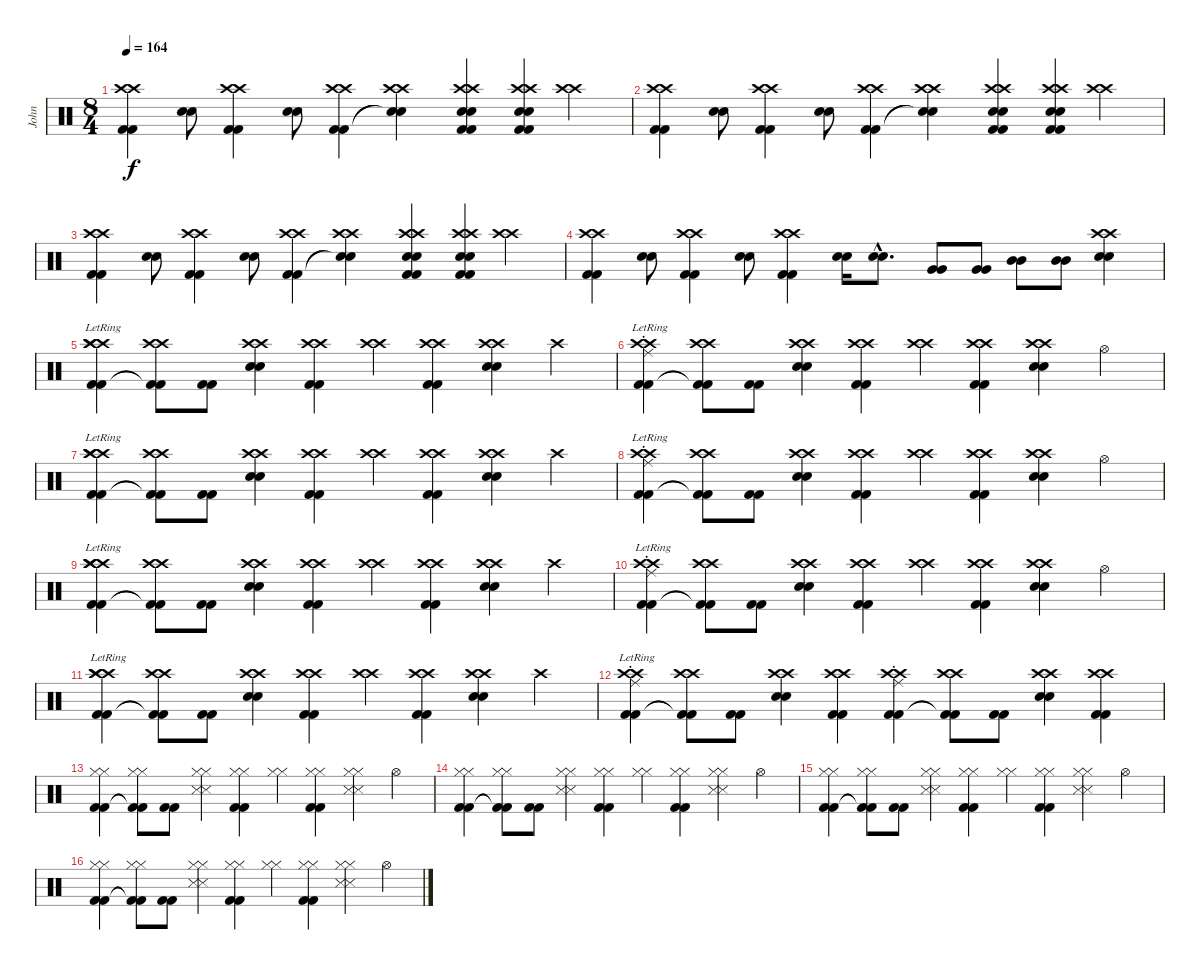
\track ("John" "John") {instrument percussion}
\staff {score}
\articulation defaults
\ts (8 4)
\tempo 164
\clef neutral
\ks c
("Kick (hit) 2" "Kick (hit) 2" "Crash high (hit)" "Crash high (hit)").4{dy f} ("Snare (hit) 2" "Snare (hit) 2").8 ("Kick (hit) 2" "Kick (hit) 2" "Crash high (hit)" "Crash high (hit)").4 ("Snare (hit) 2" "Snare (hit) 2").8 ("Kick (hit) 2" "Kick (hit) 2" "Crash high (hit)" "Crash high (hit)").4 ("Snare (hit)"{t} "Snare (hit)"{t} "Crash high (hit)" "Crash high (hit)").4 ("Kick (hit) 2" "Kick (hit) 2" "Crash high (hit)" "Crash high (hit)" "Snare (hit) 2" "Snare (hit) 2").4 ("Kick (hit) 2" "Kick (hit) 2" "Crash high (hit)" "Crash high (hit)" "Snare (hit) 2" "Snare (hit) 2").4 ("Crash high (hit)" "Crash high (hit)").4 |
("Kick (hit) 2" "Kick (hit) 2" "Crash high (hit)" "Crash high (hit)").4 ("Snare (hit) 2" "Snare (hit) 2").8 ("Kick (hit) 2" "Kick (hit) 2" "Crash high (hit)" "Crash high (hit)").4 ("Snare (hit) 2" "Snare (hit) 2").8 ("Kick (hit) 2" "Kick (hit) 2" "Crash high (hit)" "Crash high (hit)").4 ("Snare (hit)"{t} "Snare (hit)"{t} "Crash high (hit)" "Crash high (hit)").4 ("Kick (hit) 2" "Kick (hit) 2" "Crash high (hit)" "Crash high (hit)" "Snare (hit) 2" "Snare (hit) 2").4 ("Kick (hit) 2" "Kick (hit) 2" "Crash high (hit)" "Crash high (hit)" "Snare (hit) 2" "Snare (hit) 2").4 ("Crash high (hit)" "Crash high (hit)").4 |
("Kick (hit) 2" "Kick (hit) 2" "Crash high (hit)" "Crash high (hit)").4 ("Snare (hit) 2" "Snare (hit) 2").8 ("Kick (hit) 2" "Kick (hit) 2" "Crash high (hit)" "Crash high (hit)").4 ("Snare (hit) 2" "Snare (hit) 2").8 ("Kick (hit) 2" "Kick (hit) 2" "Crash high (hit)" "Crash high (hit)").4 ("Snare (hit)"{t} "Snare (hit)"{t} "Crash high (hit)" "Crash high (hit)").4 ("Kick (hit) 2" "Kick (hit) 2" "Crash high (hit)" "Crash high (hit)" "Snare (hit) 2" "Snare (hit) 2").4 ("Kick (hit) 2" "Kick (hit) 2" "Crash high (hit)" "Crash high (hit)" "Snare (hit) 2" "Snare (hit) 2").4 ("Crash high (hit)" "Crash high (hit)").4 |
("Kick (hit) 2" "Kick (hit) 2" "Crash high (hit)" "Crash high (hit)").4 ("Snare (hit) 2" "Snare (hit) 2").8 ("Kick (hit) 2" "Kick (hit) 2" "Crash high (hit)" "Crash high (hit)").4 ("Snare (hit) 2" "Snare (hit) 2").8 ("Kick (hit) 2" "Kick (hit) 2" "Crash high (hit)" "Crash high (hit)").4 ("Snare (hit) 2" "Snare (hit) 2").16 ("Snare (hit) 2"{hac} "Snare (hit) 2"{hac}).8{d} ("Very Low Tom (hit)" "Very Low Tom (hit)").8 ("Very Low Tom (hit)" "Very Low Tom (hit)").8 ("Mid Tom (hit)" "Mid Tom (hit)").8 ("Mid Tom (hit)" "Mid Tom (hit)").8 ("Snare (hit) 2" "Snare (hit) 2" "Crash high (hit)" "Crash high (hit)").4 |
("Kick (hit) 2" "Kick (hit) 2" "Crash high (hit)" "Crash high (hit)" "Crash high (hit)"{lr}).4 ("Kick (hit) 2"{t} "Kick (hit) 2"{t} "Crash high (hit)" "Crash high (hit)").8 ("Kick (hit) 2" "Kick (hit) 2").8 ("Snare (hit) 2" "Snare (hit) 2" "Crash high (hit)" "Crash high (hit)").4 ("Kick (hit) 2" "Kick (hit) 2" "Crash high (hit)" "Crash high (hit)").4 ("Crash high (hit)" "Crash high (hit)").4 ("Kick (hit) 2" "Kick (hit) 2" "Crash high (hit)" "Crash high (hit)").4 ("Snare (hit) 2" "Snare (hit) 2" "Crash high (hit)" "Crash high (hit)").4 "Crash high (hit)".4 |
("Kick (hit) 2" "Kick (hit) 2" "Crash high (hit)" "Crash high (hit)" "Ride (choke)"{lr}).4 ("Kick (hit) 2"{t} "Kick (hit) 2"{t} "Crash high (hit)" "Crash high (hit)").8 ("Kick (hit) 2" "Kick (hit) 2").8 ("Snare (hit) 2" "Snare (hit) 2" "Crash high (hit)" "Crash high (hit)").4 ("Kick (hit) 2" "Kick (hit) 2" "Crash high (hit)" "Crash high (hit)").4 ("Crash high (hit)" "Crash high (hit)").4 ("Kick (hit) 2" "Kick (hit) 2" "Crash high (hit)" "Crash high (hit)").4 ("Snare (hit) 2" "Snare (hit) 2" "Crash high (hit)" "Crash high (hit)").4 "Hi-Hat (open)".4 |
("Kick (hit) 2" "Kick (hit) 2" "Crash high (hit)" "Crash high (hit)" "Crash high (hit)"{lr}).4 ("Kick (hit) 2"{t} "Kick (hit) 2"{t} "Crash high (hit)" "Crash high (hit)").8 ("Kick (hit) 2" "Kick (hit) 2").8 ("Snare (hit) 2" "Snare (hit) 2" "Crash high (hit)" "Crash high (hit)").4 ("Kick (hit) 2" "Kick (hit) 2" "Crash high (hit)" "Crash high (hit)").4 ("Crash high (hit)" "Crash high (hit)").4 ("Kick (hit) 2" "Kick (hit) 2" "Crash high (hit)" "Crash high (hit)").4 ("Snare (hit) 2" "Snare (hit) 2" "Crash high (hit)" "Crash high (hit)").4 "Crash high (hit)".4 |
("Kick (hit) 2" "Kick (hit) 2" "Crash high (hit)" "Crash high (hit)" "Ride (choke)"{lr}).4 ("Kick (hit) 2"{t} "Kick (hit) 2"{t} "Crash high (hit)" "Crash high (hit)").8 ("Kick (hit) 2" "Kick (hit) 2").8 ("Snare (hit) 2" "Snare (hit) 2" "Crash high (hit)" "Crash high (hit)").4 ("Kick (hit) 2" "Kick (hit) 2" "Crash high (hit)" "Crash high (hit)").4 ("Crash high (hit)" "Crash high (hit)").4 ("Kick (hit) 2" "Kick (hit) 2" "Crash high (hit)" "Crash high (hit)").4 ("Snare (hit) 2" "Snare (hit) 2" "Crash high (hit)" "Crash high (hit)").4 "Hi-Hat (open)".4 |
("Kick (hit) 2" "Kick (hit) 2" "Crash high (hit)" "Crash high (hit)" "Crash high (hit)"{lr}).4 ("Kick (hit) 2"{t} "Kick (hit) 2"{t} "Crash high (hit)" "Crash high (hit)").8 ("Kick (hit) 2" "Kick (hit) 2").8 ("Snare (hit) 2" "Snare (hit) 2" "Crash high (hit)" "Crash high (hit)").4 ("Kick (hit) 2" "Kick (hit) 2" "Crash high (hit)" "Crash high (hit)").4 ("Crash high (hit)" "Crash high (hit)").4 ("Kick (hit) 2" "Kick (hit) 2" "Crash high (hit)" "Crash high (hit)").4 ("Snare (hit) 2" "Snare (hit) 2" "Crash high (hit)" "Crash high (hit)").4 "Crash high (hit)".4 |
("Kick (hit) 2" "Kick (hit) 2" "Crash high (hit)" "Crash high (hit)" "Ride (choke)"{lr}).4 ("Kick (hit) 2"{t} "Kick (hit) 2"{t} "Crash high (hit)" "Crash high (hit)").8 ("Kick (hit) 2" "Kick (hit) 2").8 ("Snare (hit) 2" "Snare (hit) 2" "Crash high (hit)" "Crash high (hit)").4 ("Kick (hit) 2" "Kick (hit) 2" "Crash high (hit)" "Crash high (hit)").4 ("Crash high (hit)" "Crash high (hit)").4 ("Kick (hit) 2" "Kick (hit) 2" "Crash high (hit)" "Crash high (hit)").4 ("Snare (hit) 2" "Snare (hit) 2" "Crash high (hit)" "Crash high (hit)").4 "Hi-Hat (open)".4 |
("Kick (hit) 2" "Kick (hit) 2" "Crash high (hit)" "Crash high (hit)" "Crash high (hit)"{lr}).4 ("Kick (hit) 2"{t} "Kick (hit) 2"{t} "Crash high (hit)" "Crash high (hit)").8 ("Kick (hit) 2" "Kick (hit) 2").8 ("Snare (hit) 2" "Snare (hit) 2" "Crash high (hit)" "Crash high (hit)").4 ("Kick (hit) 2" "Kick (hit) 2" "Crash high (hit)" "Crash high (hit)").4 ("Crash high (hit)" "Crash high (hit)").4 ("Kick (hit) 2" "Kick (hit) 2" "Crash high (hit)" "Crash high (hit)").4 ("Snare (hit) 2" "Snare (hit) 2" "Crash high (hit)" "Crash high (hit)").4 "Crash high (hit)".4 |
("Kick (hit) 2" "Kick (hit) 2" "Crash high (hit)" "Crash high (hit)" "Ride (choke)"{lr}).4 ("Kick (hit) 2"{t} "Kick (hit) 2"{t} "Crash high (hit)" "Crash high (hit)").8 ("Kick (hit) 2" "Kick (hit) 2").8 ("Snare (hit) 2" "Snare (hit) 2" "Crash high (hit)" "Crash high (hit)").4 ("Kick (hit) 2" "Kick (hit) 2" "Crash high (hit)" "Crash high (hit)").4 ("Kick (hit) 2" "Kick (hit) 2" "Crash high (hit)" "Crash high (hit)" "Ride (choke)").4 ("Kick (hit) 2"{t} "Kick (hit) 2"{t} "Crash high (hit)" "Crash high (hit)").8 ("Kick (hit) 2" "Kick (hit) 2").8 ("Snare (hit) 2" "Snare (hit) 2" "Crash high (hit)" "Crash high (hit)").4 ("Kick (hit) 2" "Kick (hit) 2" "Crash high (hit)" "Crash high (hit)").4 |
("Kick (hit) 2" "Kick (hit) 2" "Hi-Hat (closed)" "Hi-Hat (closed)").4 ("Kick (hit) 2"{t} "Kick (hit) 2"{t} "Hi-Hat (closed)" "Hi-Hat (closed)").8 ("Kick (hit) 2" "Kick (hit) 2").8 ("Snare (side stick) 3" "Snare (side stick) 3" "Hi-Hat (closed)" "Hi-Hat (closed)").4 ("Kick (hit) 2" "Kick (hit) 2" "Hi-Hat (closed)" "Hi-Hat (closed)").4 ("Hi-Hat (closed)" "Hi-Hat (closed)").4 ("Kick (hit) 2" "Kick (hit) 2" "Hi-Hat (closed)" "Hi-Hat (closed)").4 ("Snare (side stick) 3" "Snare (side stick) 3" "Hi-Hat (closed)" "Hi-Hat (closed)").4 "Hi-Hat (open)".4 |
("Kick (hit) 2" "Kick (hit) 2" "Hi-Hat (closed)" "Hi-Hat (closed)").4 ("Kick (hit) 2"{t} "Kick (hit) 2"{t} "Hi-Hat (closed)" "Hi-Hat (closed)").8 ("Kick (hit) 2" "Kick (hit) 2").8 ("Snare (side stick) 3" "Snare (side stick) 3" "Hi-Hat (closed)" "Hi-Hat (closed)").4 ("Kick (hit) 2" "Kick (hit) 2" "Hi-Hat (closed)" "Hi-Hat (closed)").4 ("Hi-Hat (closed)" "Hi-Hat (closed)").4 ("Kick (hit) 2" "Kick (hit) 2" "Hi-Hat (closed)" "Hi-Hat (closed)").4 ("Snare (side stick) 3" "Snare (side stick) 3" "Hi-Hat (closed)" "Hi-Hat (closed)").4 "Hi-Hat (open)".4 |
("Kick (hit) 2" "Kick (hit) 2" "Hi-Hat (closed)" "Hi-Hat (closed)").4 ("Kick (hit) 2"{t} "Kick (hit) 2"{t} "Hi-Hat (closed)" "Hi-Hat (closed)").8 ("Kick (hit) 2" "Kick (hit) 2").8 ("Snare (side stick) 3" "Snare (side stick) 3" "Hi-Hat (closed)" "Hi-Hat (closed)").4 ("Kick (hit) 2" "Kick (hit) 2" "Hi-Hat (closed)" "Hi-Hat (closed)").4 ("Hi-Hat (closed)" "Hi-Hat (closed)").4 ("Kick (hit) 2" "Kick (hit) 2" "Hi-Hat (closed)" "Hi-Hat (closed)").4 ("Snare (side stick) 3" "Snare (side stick) 3" "Hi-Hat (closed)" "Hi-Hat (closed)").4 "Hi-Hat (open)".4 |
("Kick (hit) 2" "Kick (hit) 2" "Hi-Hat (closed)" "Hi-Hat (closed)").4 ("Kick (hit) 2"{t} "Kick (hit) 2"{t} "Hi-Hat (closed)" "Hi-Hat (closed)").8 ("Kick (hit) 2" "Kick (hit) 2").8 ("Snare (side stick) 3" "Snare (side stick) 3" "Hi-Hat (closed)" "Hi-Hat (closed)").4 ("Kick (hit) 2" "Kick (hit) 2" "Hi-Hat (closed)" "Hi-Hat (closed)").4 ("Hi-Hat (closed)" "Hi-Hat (closed)").4 ("Kick (hit) 2" "Kick (hit) 2" "Hi-Hat (closed)" "Hi-Hat (closed)").4 ("Snare (side stick) 3" "Snare (side stick) 3" "Hi-Hat (closed)" "Hi-Hat (closed)").4 "Hi-Hat (open)".4
